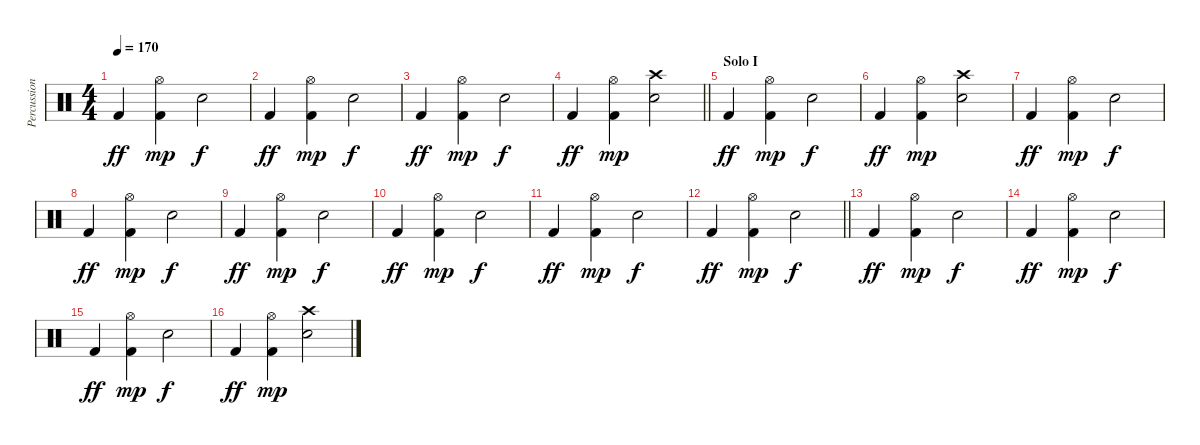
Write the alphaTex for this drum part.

\track ("Percussion" "Percussion") {instrument percussion}
\staff {score}
\articulation defaults
\ts (4 4)
\tempo 170
\clef neutral
\ks c "Kick (hit) 2".4{dy ff}
("Hi-Hat (open)" "Kick (hit) 2").4{dy mp} "Electric Snare (hit)".2{dy f} |
"Kick (hit) 2".4{dy ff} ("Hi-Hat (open)" "Kick (hit) 2").4{dy mp} "Electric Snare (hit)".2{dy f} |
"Kick (hit) 2".4{dy ff} ("Hi-Hat (open)" "Kick (hit) 2").4{dy mp} "Electric Snare (hit)".2{dy f} |
\barLineRight lightlight "Kick (hit) 2".4{dy ff}
("Hi-Hat (open)" "Kick (hit) 2").4{dy mp} ("Crash high (hit)" "Electric Snare (hit)").2 |
\section ("" "Solo I")
"Kick (hit) 2".4{dy ff} ("Hi-Hat (open)" "Kick (hit) 2").4{dy mp} "Electric Snare (hit)".2{dy f} |
"Kick (hit) 2".4{dy ff} ("Hi-Hat (open)" "Kick (hit) 2").4{dy mp} ("Crash high (hit)" "Electric Snare (hit)").2 |
"Kick (hit) 2".4{dy ff} ("Hi-Hat (open)" "Kick (hit) 2").4{dy mp} "Electric Snare (hit)".2{dy f} |
"Kick (hit) 2".4{dy ff} ("Hi-Hat (open)" "Kick (hit) 2").4{dy mp} "Electric Snare (hit)".2{dy f} |
"Kick (hit) 2".4{dy ff} ("Hi-Hat (open)" "Kick (hit) 2").4{dy mp} "Electric Snare (hit)".2{dy f} |
"Kick (hit) 2".4{dy ff} ("Hi-Hat (open)" "Kick (hit) 2").4{dy mp} "Electric Snare (hit)".2{dy f} |
"Kick (hit) 2".4{dy ff} ("Hi-Hat (open)" "Kick (hit) 2").4{dy mp} "Electric Snare (hit)".2{dy f} |
\barLineRight lightlight "Kick (hit) 2".4{dy ff}
("Hi-Hat (open)" "Kick (hit) 2").4{dy mp} "Electric Snare (hit)".2{dy f} |
"Kick (hit) 2".4{dy ff} ("Hi-Hat (open)" "Kick (hit) 2").4{dy mp} "Electric Snare (hit)".2{dy f} |
"Kick (hit) 2".4{dy ff} ("Hi-Hat (open)" "Kick (hit) 2").4{dy mp} "Electric Snare (hit)".2{dy f} |
"Kick (hit) 2".4{dy ff} ("Hi-Hat (open)" "Kick (hit) 2").4{dy mp} "Electric Snare (hit)".2{dy f} |
"Kick (hit) 2".4{dy ff} ("Hi-Hat (open)" "Kick (hit) 2").4{dy mp} ("Crash high (hit)" "Electric Snare (hit)").2
